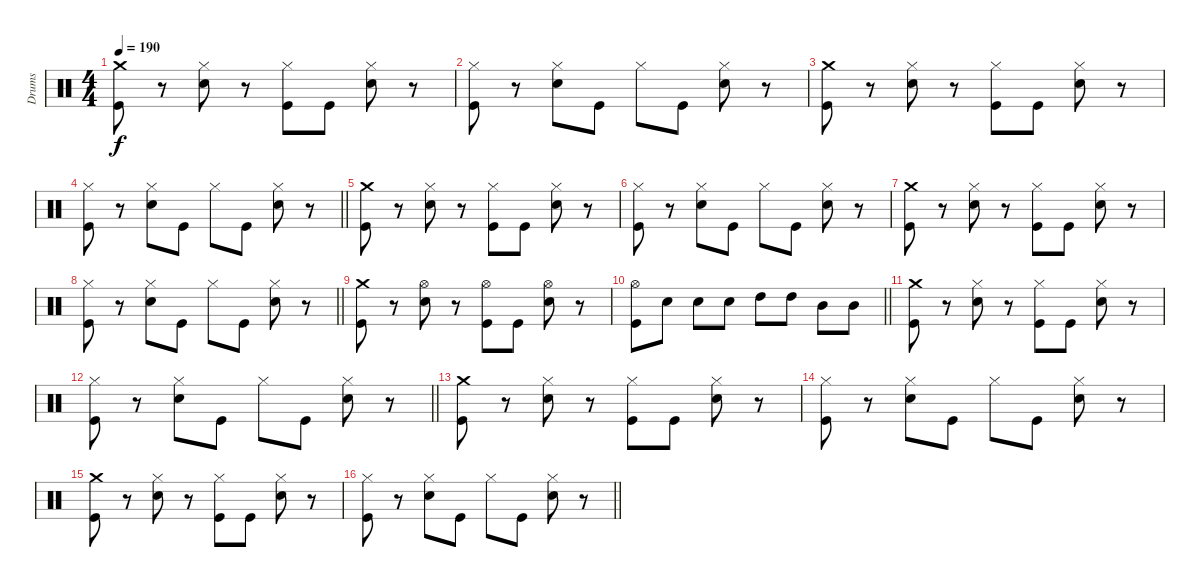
\track ("Drums" "Drums") {instrument percussion}
\staff {score}
\articulation defaults
\ts (4 4)
\tempo 190
\clef neutral
\ks c
("Crash medium (hit)" "Kick (hit)").8{dy f} r.8 ("Hi-Hat (closed)" "Snare (hit) 2").8 r.8 ("Hi-Hat (closed)" "Kick (hit)").8 "Kick (hit)".8 ("Hi-Hat (closed)" "Snare (hit) 2").8 r.8 |
("Hi-Hat (closed)" "Kick (hit)").8 r.8 ("Hi-Hat (closed)" "Snare (hit) 2").8 "Kick (hit)".8 "Hi-Hat (closed)".8 "Kick (hit)".8 ("Hi-Hat (closed)" "Snare (hit) 2").8 r.8 |
("Crash medium (hit)" "Kick (hit)").8 r.8 ("Hi-Hat (closed)" "Snare (hit) 2").8 r.8 ("Hi-Hat (closed)" "Kick (hit)").8 "Kick (hit)".8 ("Hi-Hat (closed)" "Snare (hit) 2").8 r.8 |
\barLineRight lightlight
("Hi-Hat (closed)" "Kick (hit)").8 r.8 ("Hi-Hat (closed)" "Snare (hit) 2").8 "Kick (hit)".8 "Hi-Hat (closed)".8 "Kick (hit)".8 ("Hi-Hat (closed)" "Snare (hit) 2").8 r.8 |
("Crash medium (hit)" "Kick (hit)").8 r.8 ("Hi-Hat (closed)" "Snare (hit) 2").8 r.8 ("Hi-Hat (closed)" "Kick (hit)").8 "Kick (hit)".8 ("Hi-Hat (closed)" "Snare (hit) 2").8 r.8 |
("Hi-Hat (closed)" "Kick (hit)").8 r.8 ("Hi-Hat (closed)" "Snare (hit) 2").8 "Kick (hit)".8 "Hi-Hat (closed)".8 "Kick (hit)".8 ("Hi-Hat (closed)" "Snare (hit) 2").8 r.8 |
("Crash medium (hit)" "Kick (hit)").8 r.8 ("Hi-Hat (closed)" "Snare (hit) 2").8 r.8 ("Hi-Hat (closed)" "Kick (hit)").8 "Kick (hit)".8 ("Hi-Hat (closed)" "Snare (hit) 2").8 r.8 |
\barLineRight lightlight
("Hi-Hat (closed)" "Kick (hit)").8 r.8 ("Hi-Hat (closed)" "Snare (hit) 2").8 "Kick (hit)".8 "Hi-Hat (closed)".8 "Kick (hit)".8 ("Hi-Hat (closed)" "Snare (hit) 2").8 r.8 |
("Crash medium (hit)" "Kick (hit)").8 r.8 ("Hi-Hat (open)" "Snare (hit) 2").8 r.8 ("Hi-Hat (open)" "Kick (hit)").8 "Kick (hit)".8 ("Hi-Hat (open)" "Snare (hit) 2").8 r.8 |
\barLineRight lightlight
("Hi-Hat (open)" "Kick (hit)").8 "Snare (hit) 2".8 "Snare (hit) 2".8 "Snare (hit) 2".8 "High Tom (hit)".8 "High Tom (hit)".8 "Mid Tom (hit)".8 "Mid Tom (hit)".8 |
("Crash medium (hit)" "Kick (hit)").8 r.8 ("Hi-Hat (closed)" "Snare (hit) 2").8 r.8 ("Hi-Hat (closed)" "Kick (hit)").8 "Kick (hit)".8 ("Hi-Hat (closed)" "Snare (hit) 2").8 r.8 |
\barLineRight lightlight
("Hi-Hat (closed)" "Kick (hit)").8 r.8 ("Hi-Hat (closed)" "Snare (hit) 2").8 "Kick (hit)".8 "Hi-Hat (closed)".8 "Kick (hit)".8 ("Hi-Hat (closed)" "Snare (hit) 2").8 r.8 |
("Crash medium (hit)" "Kick (hit)").8 r.8 ("Hi-Hat (closed)" "Snare (hit) 2").8 r.8 ("Hi-Hat (closed)" "Kick (hit)").8 "Kick (hit)".8 ("Hi-Hat (closed)" "Snare (hit) 2").8 r.8 |
("Hi-Hat (closed)" "Kick (hit)").8 r.8 ("Hi-Hat (closed)" "Snare (hit) 2").8 "Kick (hit)".8 "Hi-Hat (closed)".8 "Kick (hit)".8 ("Hi-Hat (closed)" "Snare (hit) 2").8 r.8 |
("Crash medium (hit)" "Kick (hit)").8 r.8 ("Hi-Hat (closed)" "Snare (hit) 2").8 r.8 ("Hi-Hat (closed)" "Kick (hit)").8 "Kick (hit)".8 ("Hi-Hat (closed)" "Snare (hit) 2").8 r.8 |
\barLineRight lightlight
("Hi-Hat (closed)" "Kick (hit)").8 r.8 ("Hi-Hat (closed)" "Snare (hit) 2").8 "Kick (hit)".8 "Hi-Hat (closed)".8 "Kick (hit)".8 ("Hi-Hat (closed)" "Snare (hit) 2").8 r.8
